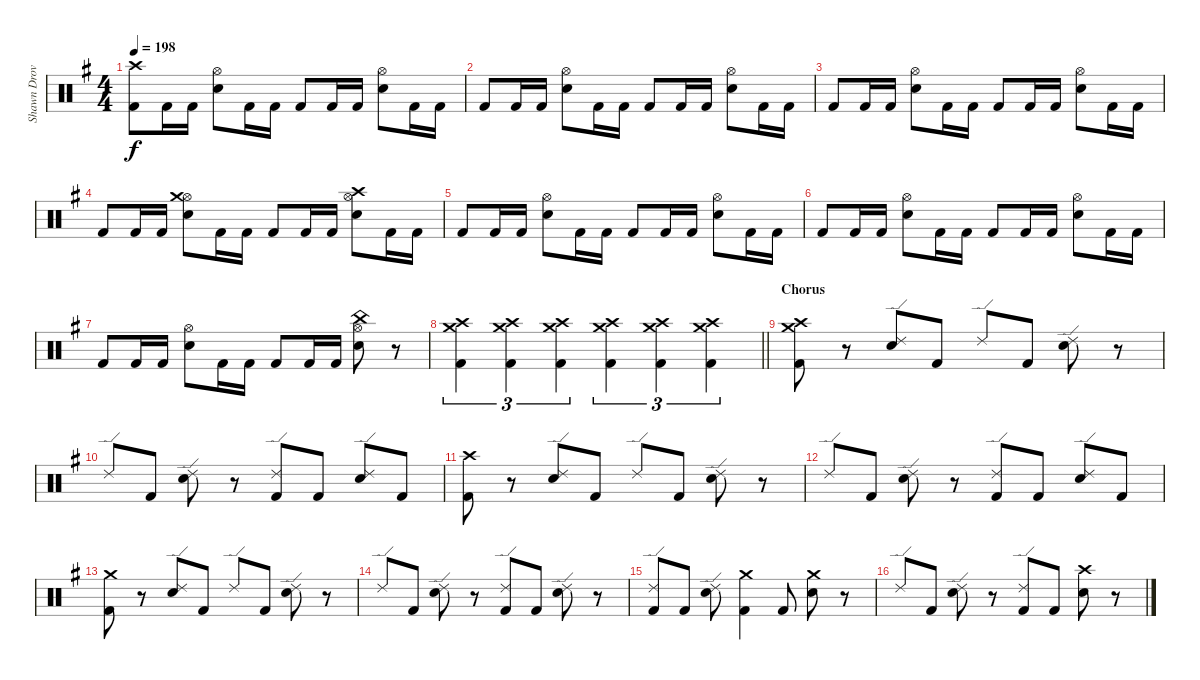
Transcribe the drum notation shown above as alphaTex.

\track ("Shawn Drover" "Shawn Drov") {instrument percussion}
\staff {score}
\articulation defaults
\ts (4 4)
\tempo 198
\clef neutral
\ks g
("Crash high (hit)" "Kick (hit) 2").8{dy f} "Kick (hit) 2".16 "Kick (hit) 2".16 ("Hi-Hat (open)" "Snare (hit) 2").8 "Kick (hit) 2".16 "Kick (hit) 2".16 "Kick (hit) 2".8 "Kick (hit) 2".16 "Kick (hit) 2".16 ("Hi-Hat (open)" "Snare (hit) 2").8 "Kick (hit) 2".16 "Kick (hit) 2".16 |
"Kick (hit) 2".8 "Kick (hit) 2".16 "Kick (hit) 2".16 ("Hi-Hat (open)" "Snare (hit) 2").8 "Kick (hit) 2".16 "Kick (hit) 2".16 "Kick (hit) 2".8 "Kick (hit) 2".16 "Kick (hit) 2".16 ("Hi-Hat (open)" "Snare (hit) 2").8 "Kick (hit) 2".16 "Kick (hit) 2".16 |
"Kick (hit) 2".8 "Kick (hit) 2".16 "Kick (hit) 2".16 ("Hi-Hat (open)" "Snare (hit) 2").8 "Kick (hit) 2".16 "Kick (hit) 2".16 "Kick (hit) 2".8 "Kick (hit) 2".16 "Kick (hit) 2".16 ("Hi-Hat (open)" "Snare (hit) 2").8 "Kick (hit) 2".16 "Kick (hit) 2".16 |
"Kick (hit) 2".8 "Kick (hit) 2".16 "Kick (hit) 2".16 ("Hi-Hat (open)" "Crash medium (hit)" "Snare (hit) 2").8 "Kick (hit) 2".16 "Kick (hit) 2".16 "Kick (hit) 2".8 "Kick (hit) 2".16 "Kick (hit) 2".16 ("Hi-Hat (open)" "Crash high (hit)" "Snare (hit) 2").8 "Kick (hit) 2".16 "Kick (hit) 2".16 |
"Kick (hit) 2".8 "Kick (hit) 2".16 "Kick (hit) 2".16 ("Hi-Hat (open)" "Snare (hit) 2").8 "Kick (hit) 2".16 "Kick (hit) 2".16 "Kick (hit) 2".8 "Kick (hit) 2".16 "Kick (hit) 2".16 ("Hi-Hat (open)" "Snare (hit) 2").8 "Kick (hit) 2".16 "Kick (hit) 2".16 |
"Kick (hit) 2".8 "Kick (hit) 2".16 "Kick (hit) 2".16 ("Hi-Hat (open)" "Snare (hit) 2").8 "Kick (hit) 2".16 "Kick (hit) 2".16 "Kick (hit) 2".8 "Kick (hit) 2".16 "Kick (hit) 2".16 ("Hi-Hat (open)" "Snare (hit) 2").8 "Kick (hit) 2".16 "Kick (hit) 2".16 |
"Kick (hit) 2".8 "Kick (hit) 2".16 "Kick (hit) 2".16 ("Hi-Hat (open)" "Snare (hit) 2").8 "Kick (hit) 2".16 "Kick (hit) 2".16 "Kick (hit) 2".8 "Kick (hit) 2".16 "Kick (hit) 2".16 ("Hi-Hat (open)" "China (hit)" "Snare (hit) 2").8 r.8 |
\barLineRight lightlight
("Crash high (hit)" "Crash medium (hit)" "Kick (hit) 2").4{tu (3 2)} ("Crash high (hit)" "Crash medium (hit)" "Kick (hit) 2").4{tu (3 2)} ("Crash high (hit)" "Crash medium (hit)" "Kick (hit) 2").4{tu (3 2)} ("Crash high (hit)" "Crash medium (hit)" "Kick (hit) 2").4{tu (3 2)} ("Crash high (hit)" "Crash medium (hit)" "Kick (hit) 2").4{tu (3 2)} ("Crash high (hit)" "Crash medium (hit)" "Kick (hit) 2").4{tu (3 2)} |
\section ("" "Chorus")
("Crash medium (hit)" "Crash high (hit)" "Kick (hit) 2").8 r.8 ("Ride (edge) 2" "Snare (hit) 2").8 "Kick (hit) 2".8 "Ride (edge) 2".8 "Kick (hit) 2".8 ("Ride (edge) 2" "Snare (hit) 2").8 r.8 |
"Ride (edge) 2".8 "Kick (hit) 2".8 ("Ride (edge) 2" "Snare (hit) 2").8 r.8 ("Ride (edge) 2" "Kick (hit) 2").8 "Kick (hit) 2".8 ("Ride (edge) 2" "Snare (hit) 2").8 "Kick (hit) 2".8 |
("Crash high (hit)" "Kick (hit) 2").8 r.8 ("Ride (edge) 2" "Snare (hit) 2").8 "Kick (hit) 2".8 "Ride (edge) 2".8 "Kick (hit) 2".8 ("Ride (edge) 2" "Snare (hit) 2").8 r.8 |
"Ride (edge) 2".8 "Kick (hit) 2".8 ("Ride (edge) 2" "Snare (hit) 2").8 r.8 ("Ride (edge) 2" "Kick (hit) 2").8 "Kick (hit) 2".8 ("Ride (edge) 2" "Snare (hit) 2").8 "Kick (hit) 2".8 |
("Crash medium (hit)" "Kick (hit) 2").8 r.8 ("Ride (edge) 2" "Snare (hit) 2").8 "Kick (hit) 2".8 "Ride (edge) 2".8 "Kick (hit) 2".8 ("Ride (edge) 2" "Snare (hit) 2").8 r.8 |
"Ride (edge) 2".8 "Kick (hit) 2".8 ("Ride (edge) 2" "Snare (hit) 2").8 r.8 ("Ride (edge) 2" "Kick (hit) 2").8 "Kick (hit) 2".8 ("Ride (edge) 2" "Snare (hit) 2").8 r.8 |
("Ride (edge) 2" "Kick (hit) 2").8 "Kick (hit) 2".8 ("Ride (edge) 2" "Snare (hit) 2").8 ("Crash medium (hit)" "Kick (hit) 2").4 "Kick (hit) 2".8 ("Crash medium (hit)" "Snare (hit) 2").8 r.8 |
"Ride (edge) 2".8 "Kick (hit) 2".8 ("Ride (edge) 2" "Snare (hit) 2").8 r.8 ("Ride (edge) 2" "Kick (hit) 2").8 "Kick (hit) 2".8 ("Crash high (hit)" "Snare (hit) 2").8 r.8
